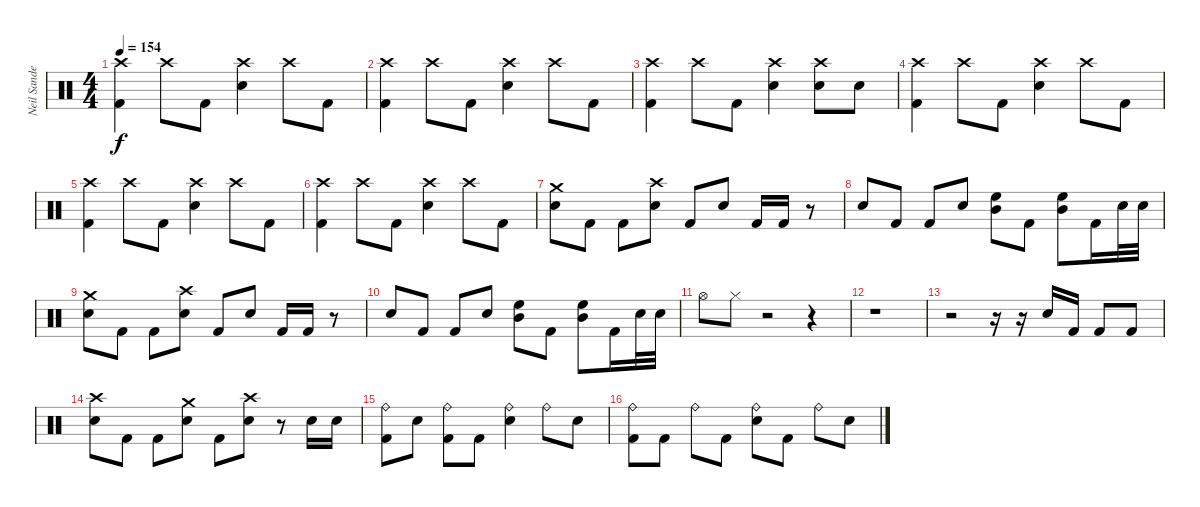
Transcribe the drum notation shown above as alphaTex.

\track ("Neil Sanderson" "Neil Sande") {instrument percussion}
\staff {score}
\articulation defaults
\ts (4 4)
\tempo 154
\clef neutral
\ks c
("Crash high (hit)" "Kick (hit) 2").4{dy f} "Crash high (hit)".8 "Kick (hit) 2".8 ("Crash high (hit)" "Snare (hit) 2").4 "Crash high (hit)".8 "Kick (hit) 2".8 |
("Crash high (hit)" "Kick (hit) 2").4 "Crash high (hit)".8 "Kick (hit) 2".8 ("Crash high (hit)" "Snare (hit) 2").4 "Crash high (hit)".8 "Kick (hit) 2".8 |
("Crash high (hit)" "Kick (hit) 2").4 "Crash high (hit)".8 "Kick (hit) 2".8 ("Crash high (hit)" "Snare (hit) 2").4 ("Crash high (hit)" "Snare (hit) 2").8 "Snare (hit) 2".8 |
("Crash high (hit)" "Kick (hit) 2").4 "Crash high (hit)".8 "Kick (hit) 2".8 ("Crash high (hit)" "Snare (hit) 2").4 "Crash high (hit)".8 "Kick (hit) 2".8 |
("Crash high (hit)" "Kick (hit) 2").4 "Crash high (hit)".8 "Kick (hit) 2".8 ("Crash high (hit)" "Snare (hit) 2").4 "Crash high (hit)".8 "Kick (hit) 2".8 |
("Crash high (hit)" "Kick (hit) 2").4 "Crash high (hit)".8 "Kick (hit) 2".8 ("Crash high (hit)" "Snare (hit) 2").4 "Crash high (hit)".8 "Kick (hit) 2".8 |
("Crash medium (hit)" "Snare (hit) 2").8 "Kick (hit) 2".8 "Kick (hit) 2".8 ("Crash high (hit)" "Snare (hit) 2").8 "Kick (hit) 2".8 "Snare (hit) 2".8 "Kick (hit) 2".16 "Kick (hit) 2".16 r.8 |
"Snare (hit) 2".8 "Kick (hit) 2".8 "Kick (hit) 2".8 "Snare (hit) 2".8 ("High Floor Tom (hit)" "Mid Tom (hit)").8 "Kick (hit) 2".8 ("High Floor Tom (hit)" "Mid Tom (hit)").8 "Kick (hit) 2".16 "Snare (hit) 2".32 "Snare (hit) 2".32 |
("Crash medium (hit)" "Snare (hit) 2").8 "Kick (hit) 2".8 "Kick (hit) 2".8 ("Crash high (hit)" "Snare (hit) 2").8 "Kick (hit) 2".8 "Snare (hit) 2".8 "Kick (hit) 2".16 "Kick (hit) 2".16 r.8 |
"Snare (hit) 2".8 "Kick (hit) 2".8 "Kick (hit) 2".8 "Snare (hit) 2".8 ("High Floor Tom (hit)" "Mid Tom (hit)").8 "Kick (hit) 2".8 ("High Floor Tom (hit)" "Mid Tom (hit)").8 "Kick (hit) 2".16 "Snare (hit) 2".32 "Snare (hit) 2".32 |
"Hi-Hat (open)".8 "Hi-Hat (closed)".8 r.2 r.4 |
r.1 |
r.2 r.16 r.16 "Snare (hit) 2".16 "Kick (hit) 2".16 "Kick (hit) 2".8 "Kick (hit) 2".8 |
("Crash high (hit)" "Snare (hit) 2").8 "Kick (hit) 2".8 "Kick (hit) 2".8 ("Crash medium (hit)" "Snare (hit) 2").8 "Kick (hit) 2".8 ("Crash high (hit)" "Snare (hit) 2").8 r.8 "Snare (hit) 2".16 "Snare (hit) 2".16 |
("Ride (bell)" "Kick (hit) 2").8 "Snare (hit) 2".8 ("Ride (bell)" "Kick (hit) 2").8 "Kick (hit) 2".8 ("Ride (bell)" "Snare (hit) 2").4 "Ride (bell)".8 "Snare (hit) 2".8 |
("Ride (bell)" "Kick (hit) 2").8 "Kick (hit) 2".8 "Ride (bell)".8 "Kick (hit) 2".8 ("Ride (bell)" "Snare (hit) 2").8 "Kick (hit) 2".8 "Ride (bell)".8 "Snare (hit) 2".8
